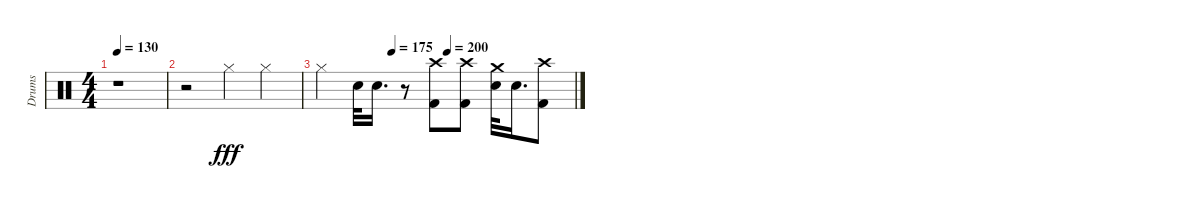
\track ("Drums" "Drums") {instrument percussion}
\staff {score}
\articulation defaults
\ts (4 4)
\tempo 130
\clef neutral
\ks c
r.1{dy f} |
r.2 "Hi-Hat (closed)".4{dy fff} "Hi-Hat (closed)".4 |
\tempo (175 0.28125)
\tempo (200 0.5)
"Hi-Hat (closed)".4 "Snare (hit) 2".32 "Snare (hit) 2".16{d} r.8 ("Crash high (hit)" "Kick (hit) 2").8 ("Crash high (hit)" "Kick (hit) 2").8 ("Crash medium (hit)" "Snare (hit) 2").32 "Snare (hit) 2".16{d} ("Crash high (hit)" "Kick (hit) 2").8
